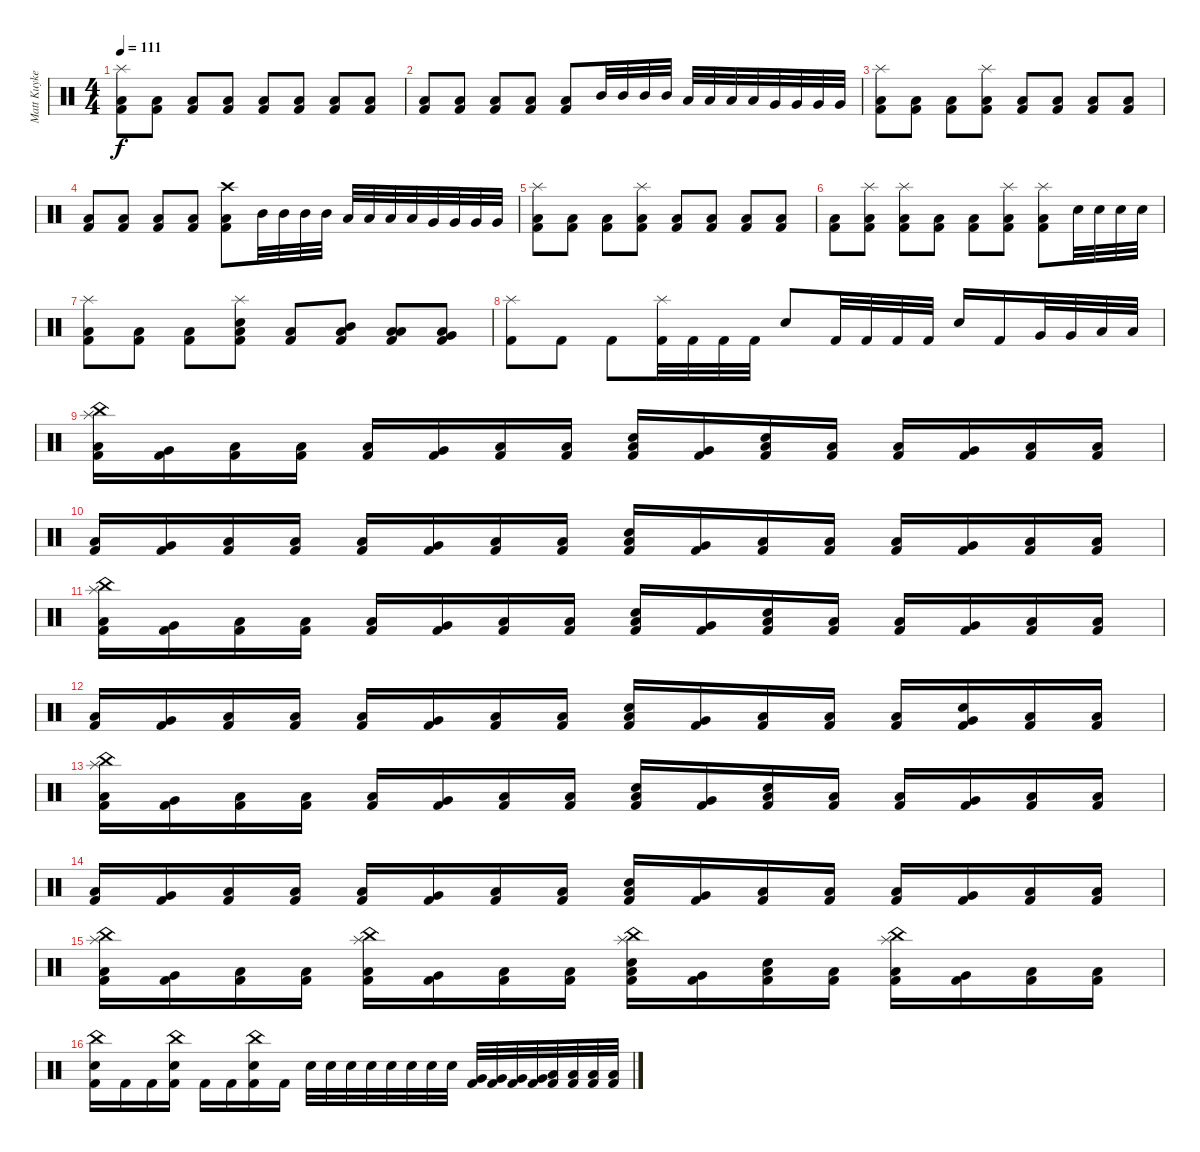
\track ("Matt Kuykendall (Drums)" "Matt Kuyke") {instrument percussion}
\staff {score}
\articulation defaults
\ts (4 4)
\tempo 111
\clef neutral
\ks c
("Splash (hit)" "Low Floor Tom (hit)" "Kick (hit) 2").8{dy f} ("Low Floor Tom (hit)" "Kick (hit) 2").8 ("Low Floor Tom (hit)" "Kick (hit) 2").8 ("Low Floor Tom (hit)" "Kick (hit) 2").8 ("Low Floor Tom (hit)" "Kick (hit) 2").8 ("Low Floor Tom (hit)" "Kick (hit) 2").8 ("Low Floor Tom (hit)" "Kick (hit) 2").8 ("Low Floor Tom (hit)" "Kick (hit) 2").8 |
("Low Floor Tom (hit)" "Kick (hit) 2").8 ("Low Floor Tom (hit)" "Kick (hit) 2").8 ("Low Floor Tom (hit)" "Kick (hit) 2").8 ("Low Floor Tom (hit)" "Kick (hit) 2").8 ("Low Floor Tom (hit)" "Kick (hit) 2").8 "Mid Tom (hit)".32 "Mid Tom (hit)".32 "Mid Tom (hit)".32 "Mid Tom (hit)".32 "Low Tom (hit)".32 "Low Tom (hit)".32 "Low Tom (hit)".32 "Low Tom (hit)".32 "Very Low Tom (hit)".32 "Very Low Tom (hit)".32 "Very Low Tom (hit)".32 "Very Low Tom (hit)".32 |
("Splash (hit)" "Low Floor Tom (hit)" "Kick (hit) 2").8 ("Low Floor Tom (hit)" "Kick (hit) 2").8 ("Low Floor Tom (hit)" "Kick (hit) 2").8 ("Splash (hit)" "Low Floor Tom (hit)" "Kick (hit) 2").8 ("Low Floor Tom (hit)" "Kick (hit) 2").8 ("Low Floor Tom (hit)" "Kick (hit) 2").8 ("Low Floor Tom (hit)" "Kick (hit) 2").8 ("Low Floor Tom (hit)" "Kick (hit) 2").8 |
("Low Floor Tom (hit)" "Kick (hit) 2").8 ("Low Floor Tom (hit)" "Kick (hit) 2").8 ("Low Floor Tom (hit)" "Kick (hit) 2").8 ("Low Floor Tom (hit)" "Kick (hit) 2").8 ("Crash high (hit)" "Low Floor Tom (hit)" "Kick (hit) 2").8 "Mid Tom (hit)".32 "Mid Tom (hit)".32 "Mid Tom (hit)".32 "Mid Tom (hit)".32 "Low Tom (hit)".32 "Low Tom (hit)".32 "Low Tom (hit)".32 "Low Tom (hit)".32 "Very Low Tom (hit)".32 "Very Low Tom (hit)".32 "Very Low Tom (hit)".32 "Very Low Tom (hit)".32 |
("Splash (hit)" "Low Floor Tom (hit)" "Kick (hit) 2").8 ("Low Floor Tom (hit)" "Kick (hit) 2").8 ("Low Floor Tom (hit)" "Kick (hit) 2").8 ("Splash (hit)" "Low Floor Tom (hit)" "Kick (hit) 2").8 ("Low Floor Tom (hit)" "Kick (hit) 2").8 ("Low Floor Tom (hit)" "Kick (hit) 2").8 ("Low Floor Tom (hit)" "Kick (hit) 2").8 ("Low Floor Tom (hit)" "Kick (hit) 2").8 |
("Low Floor Tom (hit)" "Kick (hit) 2").8 ("Splash (hit)" "Low Floor Tom (hit)" "Kick (hit) 2").8 ("Splash (hit)" "Low Floor Tom (hit)" "Kick (hit) 2").8 ("Low Floor Tom (hit)" "Kick (hit) 2").8 ("Low Floor Tom (hit)" "Kick (hit) 2").8 ("Splash (hit)" "Low Floor Tom (hit)" "Kick (hit) 2").8 ("Splash (hit)" "Low Floor Tom (hit)" "Kick (hit) 2").8 "Snare (hit) 2".32 "Snare (hit) 2".32 "Snare (hit) 2".32 "Snare (hit) 2".32 |
("Splash (hit)" "Low Floor Tom (hit)" "Kick (hit) 2").8 ("Low Floor Tom (hit)" "Kick (hit) 2").8 ("Low Floor Tom (hit)" "Kick (hit) 2").8 ("Splash (hit)" "Snare (hit) 2" "Low Floor Tom (hit)" "Kick (hit) 2").8 ("Low Floor Tom (hit)" "Kick (hit) 2").8 ("Mid Tom (hit)" "Low Floor Tom (hit)" "Kick (hit) 2").8 ("Low Tom (hit)" "Low Floor Tom (hit)" "Kick (hit) 2").8 ("Very Low Tom (hit)" "Low Floor Tom (hit)" "Kick (hit) 2").8 |
("Splash (hit)" "Kick (hit) 2").8 "Kick (hit) 2".8 "Kick (hit) 2".8 ("Splash (hit)" "Kick (hit) 2").32 "Kick (hit) 2".32 "Kick (hit) 2".32 "Kick (hit) 2".32 "Snare (hit) 2".8 "Kick (hit) 2".32 "Kick (hit) 2".32 "Kick (hit) 2".32 "Kick (hit) 2".32 "Snare (hit) 2".16 "Kick (hit) 2".16 "Very Low Tom (hit)".32 "Very Low Tom (hit)".32 "Low Floor Tom (hit)".32 "Low Floor Tom (hit)".32 |
("Splash (hit)" "China (hit)" "Low Tom (hit)" "Kick (hit) 2").16 ("Very Low Tom (hit)" "Kick (hit) 2").16 ("Low Floor Tom (hit)" "Kick (hit) 2").16 ("Low Floor Tom (hit)" "Kick (hit) 2").16 ("Low Tom (hit)" "Kick (hit) 2").16 ("Very Low Tom (hit)" "Kick (hit) 2").16 ("Low Floor Tom (hit)" "Kick (hit) 2").16 ("Low Floor Tom (hit)" "Kick (hit) 2").16 ("Snare (hit) 2" "Low Tom (hit)" "Kick (hit) 2").16 ("Very Low Tom (hit)" "Kick (hit) 2").16 ("Snare (hit) 2" "Low Floor Tom (hit)" "Kick (hit) 2").16 ("Low Floor Tom (hit)" "Kick (hit) 2").16 ("Low Tom (hit)" "Kick (hit) 2").16 ("Very Low Tom (hit)" "Kick (hit) 2").16 ("Low Floor Tom (hit)" "Kick (hit) 2").16 ("Low Floor Tom (hit)" "Kick (hit) 2").16 |
("Low Tom (hit)" "Kick (hit) 2").16 ("Very Low Tom (hit)" "Kick (hit) 2").16 ("Low Floor Tom (hit)" "Kick (hit) 2").16 ("Low Floor Tom (hit)" "Kick (hit) 2").16 ("Low Tom (hit)" "Kick (hit) 2").16 ("Very Low Tom (hit)" "Kick (hit) 2").16 ("Low Floor Tom (hit)" "Kick (hit) 2").16 ("Low Floor Tom (hit)" "Kick (hit) 2").16 ("Snare (hit) 2" "Low Tom (hit)" "Kick (hit) 2").16 ("Very Low Tom (hit)" "Kick (hit) 2").16 ("Low Floor Tom (hit)" "Kick (hit) 2").16 ("Low Floor Tom (hit)" "Kick (hit) 2").16 ("Low Tom (hit)" "Kick (hit) 2").16 ("Very Low Tom (hit)" "Kick (hit) 2").16 ("Low Floor Tom (hit)" "Kick (hit) 2").16 ("Low Floor Tom (hit)" "Kick (hit) 2").16 |
("Splash (hit)" "China (hit)" "Low Tom (hit)" "Kick (hit) 2").16 ("Very Low Tom (hit)" "Kick (hit) 2").16 ("Low Floor Tom (hit)" "Kick (hit) 2").16 ("Low Floor Tom (hit)" "Kick (hit) 2").16 ("Low Tom (hit)" "Kick (hit) 2").16 ("Very Low Tom (hit)" "Kick (hit) 2").16 ("Low Floor Tom (hit)" "Kick (hit) 2").16 ("Low Floor Tom (hit)" "Kick (hit) 2").16 ("Snare (hit) 2" "Low Tom (hit)" "Kick (hit) 2").16 ("Very Low Tom (hit)" "Kick (hit) 2").16 ("Snare (hit) 2" "Low Floor Tom (hit)" "Kick (hit) 2").16 ("Low Floor Tom (hit)" "Kick (hit) 2").16 ("Low Tom (hit)" "Kick (hit) 2").16 ("Very Low Tom (hit)" "Kick (hit) 2").16 ("Low Floor Tom (hit)" "Kick (hit) 2").16 ("Low Floor Tom (hit)" "Kick (hit) 2").16 |
("Low Tom (hit)" "Kick (hit) 2").16 ("Very Low Tom (hit)" "Kick (hit) 2").16 ("Low Floor Tom (hit)" "Kick (hit) 2").16 ("Low Floor Tom (hit)" "Kick (hit) 2").16 ("Low Tom (hit)" "Kick (hit) 2").16 ("Very Low Tom (hit)" "Kick (hit) 2").16 ("Low Floor Tom (hit)" "Kick (hit) 2").16 ("Low Floor Tom (hit)" "Kick (hit) 2").16 ("Snare (hit) 2" "Low Tom (hit)" "Kick (hit) 2").16 ("Very Low Tom (hit)" "Kick (hit) 2").16 ("Low Floor Tom (hit)" "Kick (hit) 2").16 ("Low Floor Tom (hit)" "Kick (hit) 2").16 ("Low Tom (hit)" "Kick (hit) 2").16 ("Snare (hit) 2" "Very Low Tom (hit)" "Kick (hit) 2").16 ("Low Floor Tom (hit)" "Kick (hit) 2").16 ("Low Floor Tom (hit)" "Kick (hit) 2").16 |
("Splash (hit)" "China (hit)" "Low Tom (hit)" "Kick (hit) 2").16 ("Very Low Tom (hit)" "Kick (hit) 2").16 ("Low Floor Tom (hit)" "Kick (hit) 2").16 ("Low Floor Tom (hit)" "Kick (hit) 2").16 ("Low Tom (hit)" "Kick (hit) 2").16 ("Very Low Tom (hit)" "Kick (hit) 2").16 ("Low Floor Tom (hit)" "Kick (hit) 2").16 ("Low Floor Tom (hit)" "Kick (hit) 2").16 ("Snare (hit) 2" "Low Tom (hit)" "Kick (hit) 2").16 ("Very Low Tom (hit)" "Kick (hit) 2").16 ("Snare (hit) 2" "Low Floor Tom (hit)" "Kick (hit) 2").16 ("Low Floor Tom (hit)" "Kick (hit) 2").16 ("Low Tom (hit)" "Kick (hit) 2").16 ("Very Low Tom (hit)" "Kick (hit) 2").16 ("Low Floor Tom (hit)" "Kick (hit) 2").16 ("Low Floor Tom (hit)" "Kick (hit) 2").16 |
("Low Tom (hit)" "Kick (hit) 2").16 ("Very Low Tom (hit)" "Kick (hit) 2").16 ("Low Floor Tom (hit)" "Kick (hit) 2").16 ("Low Floor Tom (hit)" "Kick (hit) 2").16 ("Low Tom (hit)" "Kick (hit) 2").16 ("Very Low Tom (hit)" "Kick (hit) 2").16 ("Low Floor Tom (hit)" "Kick (hit) 2").16 ("Low Floor Tom (hit)" "Kick (hit) 2").16 ("Snare (hit) 2" "Low Tom (hit)" "Kick (hit) 2").16 ("Very Low Tom (hit)" "Kick (hit) 2").16 ("Low Floor Tom (hit)" "Kick (hit) 2").16 ("Low Floor Tom (hit)" "Kick (hit) 2").16 ("Low Tom (hit)" "Kick (hit) 2").16 ("Very Low Tom (hit)" "Kick (hit) 2").16 ("Low Floor Tom (hit)" "Kick (hit) 2").16 ("Low Floor Tom (hit)" "Kick (hit) 2").16 |
("Splash (hit)" "China (hit)" "Low Tom (hit)" "Kick (hit) 2").16 ("Very Low Tom (hit)" "Kick (hit) 2").16 ("Low Floor Tom (hit)" "Kick (hit) 2").16 ("Low Floor Tom (hit)" "Kick (hit) 2").16 ("Splash (hit)" "China (hit)" "Low Tom (hit)" "Kick (hit) 2").16 ("Very Low Tom (hit)" "Kick (hit) 2").16 ("Low Floor Tom (hit)" "Kick (hit) 2").16 ("Low Floor Tom (hit)" "Kick (hit) 2").16 ("Splash (hit)" "China (hit)" "Snare (hit) 2" "Low Tom (hit)" "Kick (hit) 2").16 ("Very Low Tom (hit)" "Kick (hit) 2").16 ("Snare (hit) 2" "Low Floor Tom (hit)" "Kick (hit) 2").16 ("Low Floor Tom (hit)" "Kick (hit) 2").16 ("Splash (hit)" "China (hit)" "Low Tom (hit)" "Kick (hit) 2").16 ("Very Low Tom (hit)" "Kick (hit) 2").16 ("Low Floor Tom (hit)" "Kick (hit) 2").16 ("Low Floor Tom (hit)" "Kick (hit) 2").16 |
("China (hit)" "Snare (hit) 2" "Kick (hit) 2").16 "Kick (hit) 2".16 "Kick (hit) 2".16 ("China (hit)" "Snare (hit) 2" "Kick (hit) 2").16 "Kick (hit) 2".16 "Kick (hit) 2".16 ("China (hit)" "Snare (hit) 2" "Kick (hit) 2").16 "Kick (hit) 2".16 "Snare (hit) 2".32 "Snare (hit) 2".32 "Snare (hit) 2".32 "Snare (hit) 2".32 "Snare (hit) 2".32 "Snare (hit) 2".32 "Snare (hit) 2".32 "Snare (hit) 2".32 ("Very Low Tom (hit)" "Kick (hit) 2").32 ("Very Low Tom (hit)" "Kick (hit) 2").32 ("Very Low Tom (hit)" "Kick (hit) 2").32 ("Very Low Tom (hit)" "Kick (hit) 2").32 ("Low Floor Tom (hit)" "Kick (hit) 2").32 ("Low Floor Tom (hit)" "Kick (hit) 2").32 ("Low Floor Tom (hit)" "Kick (hit) 2").32 ("Low Floor Tom (hit)" "Kick (hit) 2").32
